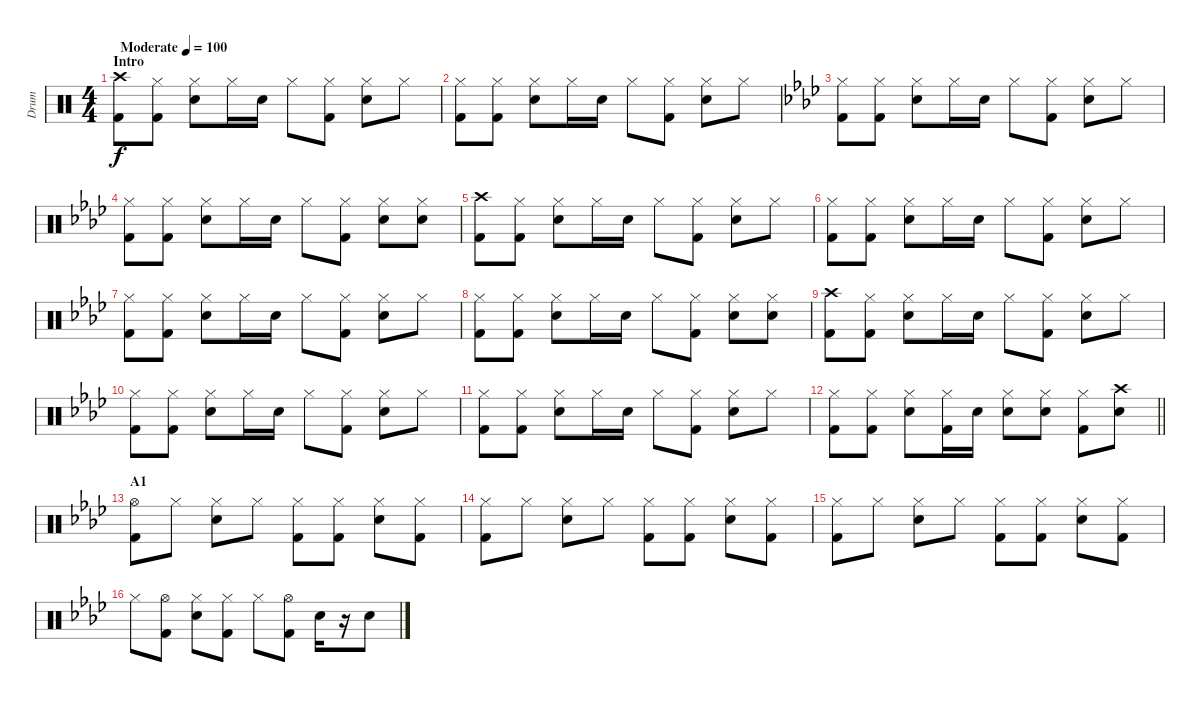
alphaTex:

\track ("Drum" "Drum") {instrument percussion}
\staff {score}
\articulation defaults
\ts (4 4)
\section ("" "Intro")
\tempo (100 "Moderate")
\clef neutral
\ks c
("Crash high (hit)" "Kick (hit) 2").8{dy f} ("Hi-Hat (closed)" "Kick (hit) 2").8 ("Hi-Hat (closed)" "Snare (hit) 2").8 "Hi-Hat (closed)".16 "Snare (hit) 2".16 "Hi-Hat (closed)".8 ("Hi-Hat (closed)" "Kick (hit) 2").8 ("Hi-Hat (closed)" "Snare (hit) 2").8 "Hi-Hat (closed)".8 |
("Hi-Hat (closed)" "Kick (hit) 2").8 ("Hi-Hat (closed)" "Kick (hit) 2").8 ("Hi-Hat (closed)" "Snare (hit) 2").8 "Hi-Hat (closed)".16 "Snare (hit) 2".16 "Hi-Hat (closed)".8 ("Hi-Hat (closed)" "Kick (hit) 2").8 ("Hi-Hat (closed)" "Snare (hit) 2").8 "Hi-Hat (closed)".8 |
\ks ab
("Hi-Hat (closed)" "Kick (hit) 2").8 ("Hi-Hat (closed)" "Kick (hit) 2").8 ("Hi-Hat (closed)" "Snare (hit) 2").8 "Hi-Hat (closed)".16 "Snare (hit) 2".16 "Hi-Hat (closed)".8 ("Hi-Hat (closed)" "Kick (hit) 2").8 ("Hi-Hat (closed)" "Snare (hit) 2").8 "Hi-Hat (closed)".8 |
("Hi-Hat (closed)" "Kick (hit) 2").8 ("Hi-Hat (closed)" "Kick (hit) 2").8 ("Hi-Hat (closed)" "Snare (hit) 2").8 "Hi-Hat (closed)".16 "Snare (hit) 2".16 "Hi-Hat (closed)".8 ("Hi-Hat (closed)" "Kick (hit) 2").8 ("Hi-Hat (closed)" "Snare (hit) 2").8 ("Hi-Hat (closed)" "Snare (hit) 2").8 |
("Crash high (hit)" "Kick (hit) 2").8 ("Hi-Hat (closed)" "Kick (hit) 2").8 ("Hi-Hat (closed)" "Snare (hit) 2").8 "Hi-Hat (closed)".16 "Snare (hit) 2".16 "Hi-Hat (closed)".8 ("Hi-Hat (closed)" "Kick (hit) 2").8 ("Hi-Hat (closed)" "Snare (hit) 2").8 "Hi-Hat (closed)".8 |
("Hi-Hat (closed)" "Kick (hit) 2").8 ("Hi-Hat (closed)" "Kick (hit) 2").8 ("Hi-Hat (closed)" "Snare (hit) 2").8 "Hi-Hat (closed)".16 "Snare (hit) 2".16 "Hi-Hat (closed)".8 ("Hi-Hat (closed)" "Kick (hit) 2").8 ("Hi-Hat (closed)" "Snare (hit) 2").8 "Hi-Hat (closed)".8 |
("Hi-Hat (closed)" "Kick (hit) 2").8 ("Hi-Hat (closed)" "Kick (hit) 2").8 ("Hi-Hat (closed)" "Snare (hit) 2").8 "Hi-Hat (closed)".16 "Snare (hit) 2".16 "Hi-Hat (closed)".8 ("Hi-Hat (closed)" "Kick (hit) 2").8 ("Hi-Hat (closed)" "Snare (hit) 2").8 "Hi-Hat (closed)".8 |
("Hi-Hat (closed)" "Kick (hit) 2").8 ("Hi-Hat (closed)" "Kick (hit) 2").8 ("Hi-Hat (closed)" "Snare (hit) 2").8 "Hi-Hat (closed)".16 "Snare (hit) 2".16 "Hi-Hat (closed)".8 ("Hi-Hat (closed)" "Kick (hit) 2").8 ("Hi-Hat (closed)" "Snare (hit) 2").8 ("Hi-Hat (closed)" "Snare (hit) 2").8 |
("Crash high (hit)" "Kick (hit) 2").8 ("Hi-Hat (closed)" "Kick (hit) 2").8 ("Hi-Hat (closed)" "Snare (hit) 2").8 "Hi-Hat (closed)".16 "Snare (hit) 2".16 "Hi-Hat (closed)".8 ("Hi-Hat (closed)" "Kick (hit) 2").8 ("Hi-Hat (closed)" "Snare (hit) 2").8 "Hi-Hat (closed)".8 |
("Hi-Hat (closed)" "Kick (hit) 2").8 ("Hi-Hat (closed)" "Kick (hit) 2").8 ("Hi-Hat (closed)" "Snare (hit) 2").8 "Hi-Hat (closed)".16 "Snare (hit) 2".16 "Hi-Hat (closed)".8 ("Hi-Hat (closed)" "Kick (hit) 2").8 ("Hi-Hat (closed)" "Snare (hit) 2").8 "Hi-Hat (closed)".8 |
("Hi-Hat (closed)" "Kick (hit) 2").8 ("Hi-Hat (closed)" "Kick (hit) 2").8 ("Hi-Hat (closed)" "Snare (hit) 2").8 "Hi-Hat (closed)".16 "Snare (hit) 2".16 "Hi-Hat (closed)".8 ("Hi-Hat (closed)" "Kick (hit) 2").8 ("Hi-Hat (closed)" "Snare (hit) 2").8 "Hi-Hat (closed)".8 |
\barLineRight lightlight
("Hi-Hat (closed)" "Kick (hit) 2").8 ("Hi-Hat (closed)" "Kick (hit) 2").8 ("Hi-Hat (closed)" "Snare (hit) 2").8 ("Hi-Hat (closed)" "Kick (hit) 2").16 "Snare (hit) 2".16 ("Hi-Hat (closed)" "Snare (hit) 2").8 ("Hi-Hat (closed)" "Snare (hit) 2").8 ("Hi-Hat (closed)" "Kick (hit) 2").8 ("Crash high (hit)" "Snare (hit) 2").8 |
\section ("" "A1")
("Hi-Hat (open)" "Kick (hit) 2").8 "Hi-Hat (closed)".8 ("Hi-Hat (closed)" "Snare (hit) 2").8 "Hi-Hat (closed)".8 ("Hi-Hat (closed)" "Kick (hit) 2").8 ("Hi-Hat (closed)" "Kick (hit) 2").8 ("Hi-Hat (closed)" "Snare (hit) 2").8 ("Hi-Hat (closed)" "Kick (hit) 2").8 |
("Hi-Hat (closed)" "Kick (hit) 2").8 "Hi-Hat (closed)".8 ("Hi-Hat (closed)" "Snare (hit) 2").8 "Hi-Hat (closed)".8 ("Hi-Hat (closed)" "Kick (hit) 2").8 ("Hi-Hat (closed)" "Kick (hit) 2").8 ("Hi-Hat (closed)" "Snare (hit) 2").8 ("Hi-Hat (closed)" "Kick (hit) 2").8 |
("Hi-Hat (closed)" "Kick (hit) 2").8 "Hi-Hat (closed)".8 ("Hi-Hat (closed)" "Snare (hit) 2").8 "Hi-Hat (closed)".8 ("Hi-Hat (closed)" "Kick (hit) 2").8 ("Hi-Hat (closed)" "Kick (hit) 2").8 ("Hi-Hat (closed)" "Snare (hit) 2").8 ("Hi-Hat (closed)" "Kick (hit) 2").8 |
"Hi-Hat (closed)".8 ("Hi-Hat (open)" "Kick (hit) 2").8 ("Hi-Hat (closed)" "Snare (hit) 2").8 ("Hi-Hat (closed)" "Kick (hit) 2").8 "Hi-Hat (closed)".8 ("Hi-Hat (open)" "Kick (hit) 2").8 "Snare (hit) 2".16 r.16 "Snare (hit) 2".8
